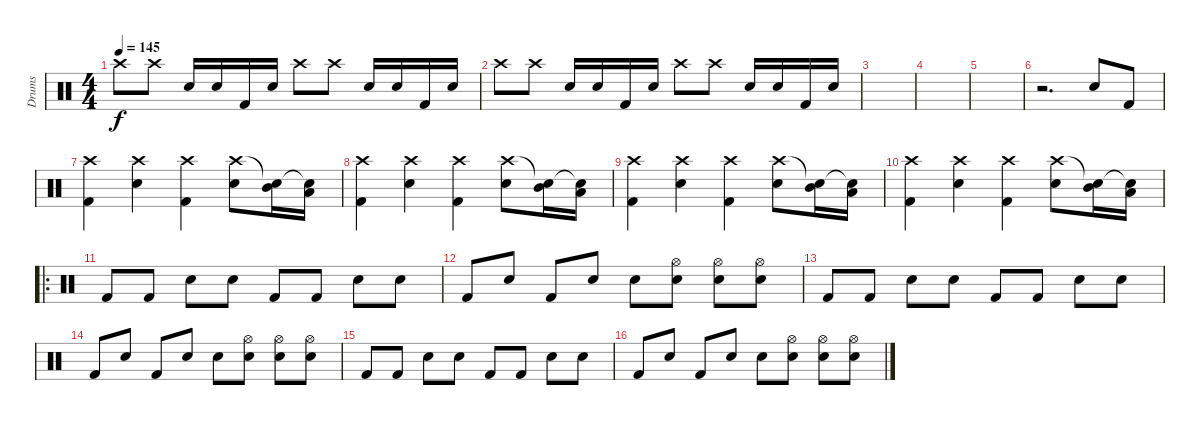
\track ("Drums" "Drums") {instrument percussion}
\staff {score}
\articulation defaults
\ts (4 4)
\tempo 145
\clef neutral
\ks c "Crash high (hit)".8{dy f} "Crash high (hit)".8 "Snare (hit) 2".16 "Snare (hit) 2".16 "Kick (hit) 2".16 "Snare (hit) 2".16 "Crash high (hit)".8 "Crash high (hit)".8 "Snare (hit) 2".16 "Snare (hit) 2".16 "Kick (hit) 2".16 "Snare (hit) 2".16
|
"Crash high (hit)".8 "Crash high (hit)".8 "Snare (hit) 2".16 "Snare (hit) 2".16 "Kick (hit) 2".16 "Snare (hit) 2".16 "Crash high (hit)".8 "Crash high (hit)".8 "Snare (hit) 2".16 "Snare (hit) 2".16 "Kick (hit) 2".16 "Snare (hit) 2".16 |
|
|
|
r.2{d} "Snare (hit) 2".8 "Kick (hit) 2".8 |
("Crash high (hit)" "Kick (hit) 2").4 ("Crash high (hit)" "Snare (hit) 2").4 ("Crash high (hit)" "Kick (hit) 2").4 ("Crash high (hit)" "Snare (hit) 2").8 ("Snare (hit)"{t} "Mid Tom (hit)").16 ("Snare (hit)"{t} "Low Tom (hit)").16 |
("Crash high (hit)" "Kick (hit) 2").4 ("Crash high (hit)" "Snare (hit) 2").4 ("Crash high (hit)" "Kick (hit) 2").4 ("Crash high (hit)" "Snare (hit) 2").8 ("Snare (hit)"{t} "Mid Tom (hit)").16 ("Snare (hit)"{t} "Low Tom (hit)").16 |
("Crash high (hit)" "Kick (hit) 2").4 ("Crash high (hit)" "Snare (hit) 2").4 ("Crash high (hit)" "Kick (hit) 2").4 ("Crash high (hit)" "Snare (hit) 2").8 ("Snare (hit)"{t} "Mid Tom (hit)").16 ("Snare (hit)"{t} "Low Tom (hit)").16 |
("Crash high (hit)" "Kick (hit) 2").4 ("Crash high (hit)" "Snare (hit) 2").4 ("Crash high (hit)" "Kick (hit) 2").4 ("Crash high (hit)" "Snare (hit) 2").8 ("Snare (hit)"{t} "Mid Tom (hit)").16 ("Snare (hit)"{t} "Low Tom (hit)").16 |
\ro "Kick (hit) 2".8 "Kick (hit) 2".8 "Snare (hit) 2".8 "Snare (hit) 2".8 "Kick (hit) 2".8 "Kick (hit) 2".8 "Snare (hit) 2".8 "Snare (hit) 2".8
|
"Kick (hit) 2".8 "Snare (hit) 2".8 "Kick (hit) 2".8 "Snare (hit) 2".8 "Snare (hit) 2".8 ("Hi-Hat (open)" "Snare (hit) 2").8 ("Hi-Hat (open)" "Snare (hit) 2").8 ("Hi-Hat (open)" "Snare (hit) 2").8 |
"Kick (hit) 2".8 "Kick (hit) 2".8 "Snare (hit) 2".8 "Snare (hit) 2".8 "Kick (hit) 2".8 "Kick (hit) 2".8 "Snare (hit) 2".8 "Snare (hit) 2".8 |
"Kick (hit) 2".8 "Snare (hit) 2".8 "Kick (hit) 2".8 "Snare (hit) 2".8 "Snare (hit) 2".8 ("Hi-Hat (open)" "Snare (hit) 2").8 ("Hi-Hat (open)" "Snare (hit) 2").8 ("Hi-Hat (open)" "Snare (hit) 2").8 |
"Kick (hit) 2".8 "Kick (hit) 2".8 "Snare (hit) 2".8 "Snare (hit) 2".8 "Kick (hit) 2".8 "Kick (hit) 2".8 "Snare (hit) 2".8 "Snare (hit) 2".8 |
"Kick (hit) 2".8 "Snare (hit) 2".8 "Kick (hit) 2".8 "Snare (hit) 2".8 "Snare (hit) 2".8 ("Hi-Hat (open)" "Snare (hit) 2").8 ("Hi-Hat (open)" "Snare (hit) 2").8 ("Hi-Hat (open)" "Snare (hit) 2").8
